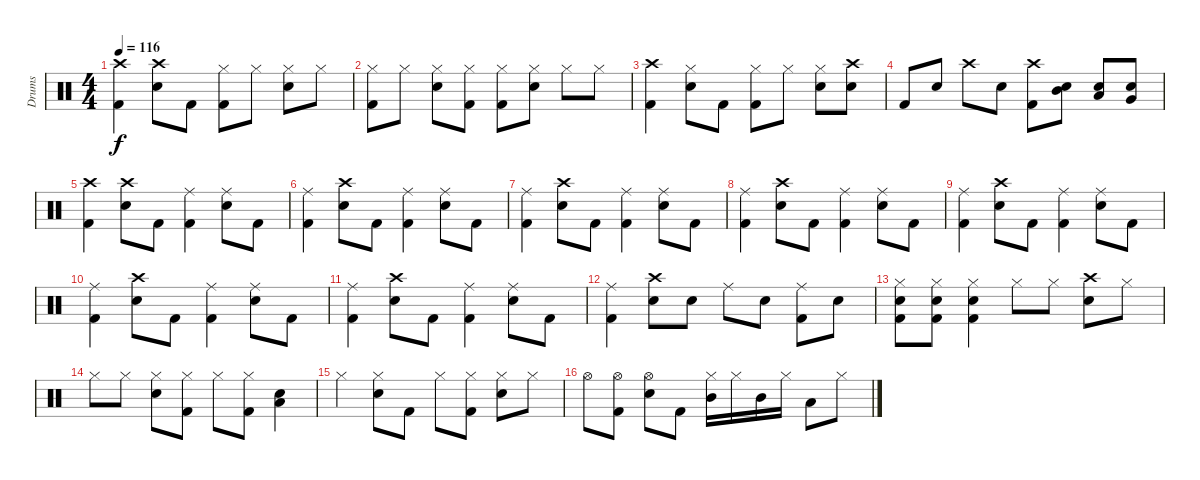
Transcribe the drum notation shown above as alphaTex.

\track ("Drums" "Drums") {instrument percussion}
\staff {score}
\articulation defaults
\ts (4 4)
\tempo 116
\clef neutral
\ks c
("Crash high (hit)" "Kick (hit) 2").4{dy f} ("Crash high (hit)" "Electric Snare (hit)").8 "Kick (hit) 2".8 ("Hi-Hat (closed)" "Kick (hit) 2").8 "Hi-Hat (closed)".8 ("Hi-Hat (closed)" "Electric Snare (hit)").8 "Hi-Hat (closed)".8 |
("Hi-Hat (closed)" "Kick (hit) 2").8 "Hi-Hat (closed)".8 ("Hi-Hat (closed)" "Electric Snare (hit)").8 ("Hi-Hat (closed)" "Kick (hit) 2").8 ("Hi-Hat (closed)" "Kick (hit) 2").8 ("Hi-Hat (closed)" "Electric Snare (hit)").8 "Hi-Hat (closed)".8 "Hi-Hat (closed)".8 |
("Crash high (hit)" "Kick (hit) 2").4 ("Hi-Hat (closed)" "Electric Snare (hit)").8 "Kick (hit) 2".8 ("Hi-Hat (closed)" "Kick (hit) 2").8 "Hi-Hat (closed)".8 ("Hi-Hat (closed)" "Electric Snare (hit)").8 ("Crash high (hit)" "Electric Snare (hit)").8 |
"Kick (hit) 2".8 "Electric Snare (hit)".8 "Crash high (hit)".8 "Electric Snare (hit)".8 ("Crash high (hit)" "Kick (hit) 2").8 ("Mid Tom (hit)" "Electric Snare (hit)").8 ("Low Tom (hit)" "Electric Snare (hit)").8 ("Electric Snare (hit)" "Very Low Tom (hit)").8 |
("Crash high (hit)" "Kick (hit) 2").4 ("Crash high (hit)" "Electric Snare (hit)").8 "Kick (hit) 2".8 ("Ride (middle)" "Kick (hit) 2").4 ("Ride (middle)" "Electric Snare (hit)").8 "Kick (hit) 2".8 |
("Ride (middle)" "Kick (hit) 2").4 ("Crash high (hit)" "Electric Snare (hit)").8 "Kick (hit) 2".8 ("Ride (middle)" "Kick (hit) 2").4 ("Ride (middle)" "Electric Snare (hit)").8 "Kick (hit) 2".8 |
("Ride (middle)" "Kick (hit) 2").4 ("Crash high (hit)" "Electric Snare (hit)").8 "Kick (hit) 2".8 ("Ride (middle)" "Kick (hit) 2").4 ("Ride (middle)" "Electric Snare (hit)").8 "Kick (hit) 2".8 |
("Ride (middle)" "Kick (hit) 2").4 ("Crash high (hit)" "Electric Snare (hit)").8 "Kick (hit) 2".8 ("Ride (middle)" "Kick (hit) 2").4 ("Ride (middle)" "Electric Snare (hit)").8 "Kick (hit) 2".8 |
("Ride (middle)" "Kick (hit) 2").4 ("Crash high (hit)" "Electric Snare (hit)").8 "Kick (hit) 2".8 ("Ride (middle)" "Kick (hit) 2").4 ("Ride (middle)" "Electric Snare (hit)").8 "Kick (hit) 2".8 |
("Ride (middle)" "Kick (hit) 2").4 ("Crash high (hit)" "Electric Snare (hit)").8 "Kick (hit) 2".8 ("Ride (middle)" "Kick (hit) 2").4 ("Ride (middle)" "Electric Snare (hit)").8 "Kick (hit) 2".8 |
("Ride (middle)" "Kick (hit) 2").4 ("Crash high (hit)" "Electric Snare (hit)").8 "Kick (hit) 2".8 ("Ride (middle)" "Kick (hit) 2").4 ("Ride (middle)" "Electric Snare (hit)").8 "Kick (hit) 2".8 |
("Ride (middle)" "Kick (hit) 2").4 ("Crash high (hit)" "Electric Snare (hit)").8 "Electric Snare (hit)".8 "Ride (middle)".8 "Electric Snare (hit)".8 ("Ride (middle)" "Kick (hit) 2").8 "Electric Snare (hit)".8 |
("Hi-Hat (closed)" "Electric Snare (hit)" "Kick (hit) 2").8 ("Hi-Hat (closed)" "Electric Snare (hit)" "Kick (hit) 2").8 ("Hi-Hat (closed)" "Electric Snare (hit)" "Kick (hit) 2").4 "Hi-Hat (closed)".8 "Hi-Hat (closed)".8 ("Crash high (hit)" "Electric Snare (hit)").8 "Hi-Hat (closed)".8 |
"Hi-Hat (closed)".8 "Hi-Hat (closed)".8 ("Hi-Hat (closed)" "Electric Snare (hit)").8 ("Hi-Hat (closed)" "Kick (hit) 2").8 "Hi-Hat (closed)".8 ("Hi-Hat (closed)" "Kick (hit) 2").8 ("Low Tom (hit)" "Electric Snare (hit)").4 |
"Hi-Hat (closed)".4 ("Hi-Hat (closed)" "Electric Snare (hit)").8 "Kick (hit) 2".8 "Hi-Hat (closed)".8 ("Hi-Hat (closed)" "Kick (hit) 2").8 ("Hi-Hat (closed)" "Electric Snare (hit)").8 "Hi-Hat (closed)".8 |
"Hi-Hat (open)".8 ("Hi-Hat (open)" "Kick (hit) 2").8 ("Hi-Hat (open)" "Electric Snare (hit)").8 "Kick (hit) 2".8 ("Hi-Hat (closed)" "Mid Tom (hit)").16 "Hi-Hat (closed)".16 "Mid Tom (hit)".16 "Hi-Hat (closed)".16 "Low Tom (hit)".8 "Hi-Hat (closed)".8
